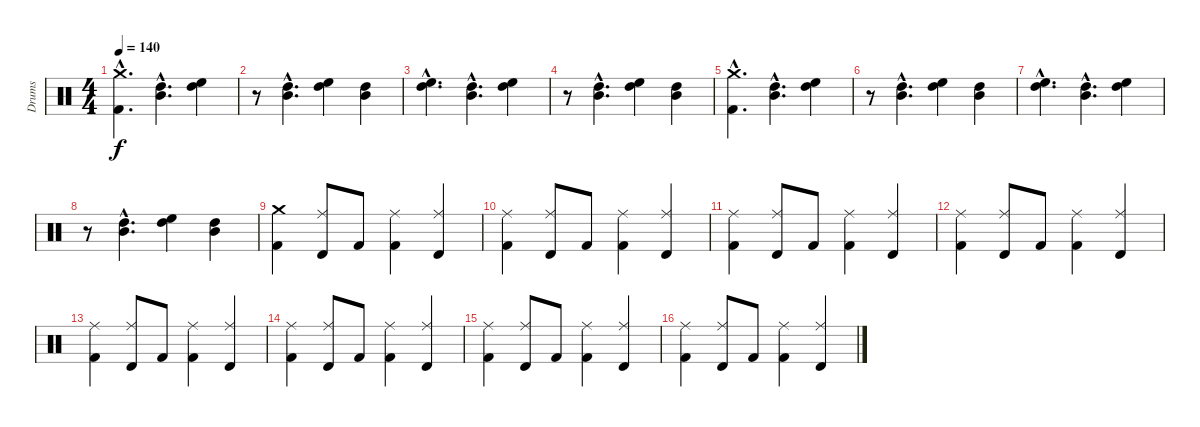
\track ("Drums" "Drums") {instrument percussion}
\staff {score}
\articulation defaults
\ts (4 4)
\tempo 140
\clef neutral
\ks c
("Crash medium (hit)"{hac} "Kick (hit) 2"{hac}).4{d dy f} ("Mid Tom (hit)"{hac} "High Tom (hit)"{hac}).4{d} ("High Floor Tom (hit)" "High Tom (hit)").4 |
r.8 ("Mid Tom (hit)"{hac} "High Tom (hit)"{hac}).4{d} ("High Floor Tom (hit)" "High Tom (hit)").4 ("Mid Tom (hit)" "High Tom (hit)").4 |
("High Floor Tom (hit)"{hac} "High Tom (hit)"{hac}).4{d} ("Mid Tom (hit)"{hac} "High Tom (hit)"{hac}).4{d} ("High Floor Tom (hit)" "High Tom (hit)").4 |
r.8 ("Mid Tom (hit)"{hac} "High Tom (hit)"{hac}).4{d} ("High Floor Tom (hit)" "High Tom (hit)").4 ("Mid Tom (hit)" "High Tom (hit)").4 |
("Crash medium (hit)"{hac} "Kick (hit) 2"{hac}).4{d} ("Mid Tom (hit)"{hac} "High Tom (hit)"{hac}).4{d} ("High Floor Tom (hit)" "High Tom (hit)").4 |
r.8 ("Mid Tom (hit)"{hac} "High Tom (hit)"{hac}).4{d} ("High Floor Tom (hit)" "High Tom (hit)").4 ("Mid Tom (hit)" "High Tom (hit)").4 |
("High Floor Tom (hit)"{hac} "High Tom (hit)"{hac}).4{d} ("Mid Tom (hit)"{hac} "High Tom (hit)"{hac}).4{d} ("High Floor Tom (hit)" "High Tom (hit)").4 |
r.8 ("Mid Tom (hit)"{hac} "High Tom (hit)"{hac}).4{d} ("High Floor Tom (hit)" "High Tom (hit)").4 ("Mid Tom (hit)" "High Tom (hit)").4 |
("Crash medium (hit)" "Kick (hit) 2").4 ("Ride (middle)" "Timbale high (hit)").8 "Kick (hit) 2".8 ("Ride (middle)" "Kick (hit) 2").4 ("Ride (middle)" "Timbale high (hit)").4 |
("Ride (middle)" "Kick (hit) 2").4 ("Ride (middle)" "Timbale high (hit)").8 "Kick (hit) 2".8 ("Ride (middle)" "Kick (hit) 2").4 ("Ride (middle)" "Timbale high (hit)").4 |
("Ride (middle)" "Kick (hit) 2").4 ("Ride (middle)" "Timbale high (hit)").8 "Kick (hit) 2".8 ("Ride (middle)" "Kick (hit) 2").4 ("Ride (middle)" "Timbale high (hit)").4 |
("Ride (middle)" "Kick (hit) 2").4 ("Ride (middle)" "Timbale high (hit)").8 "Kick (hit) 2".8 ("Ride (middle)" "Kick (hit) 2").4 ("Ride (middle)" "Timbale high (hit)").4 |
("Ride (middle)" "Kick (hit) 2").4 ("Ride (middle)" "Timbale high (hit)").8 "Kick (hit) 2".8 ("Ride (middle)" "Kick (hit) 2").4 ("Ride (middle)" "Timbale high (hit)").4 |
("Ride (middle)" "Kick (hit) 2").4 ("Ride (middle)" "Timbale high (hit)").8 "Kick (hit) 2".8 ("Ride (middle)" "Kick (hit) 2").4 ("Ride (middle)" "Timbale high (hit)").4 |
("Ride (middle)" "Kick (hit) 2").4 ("Ride (middle)" "Timbale high (hit)").8 "Kick (hit) 2".8 ("Ride (middle)" "Kick (hit) 2").4 ("Ride (middle)" "Timbale high (hit)").4 |
("Ride (middle)" "Kick (hit) 2").4 ("Ride (middle)" "Timbale high (hit)").8 "Kick (hit) 2".8 ("Ride (middle)" "Kick (hit) 2").4 ("Ride (middle)" "Timbale high (hit)").4
